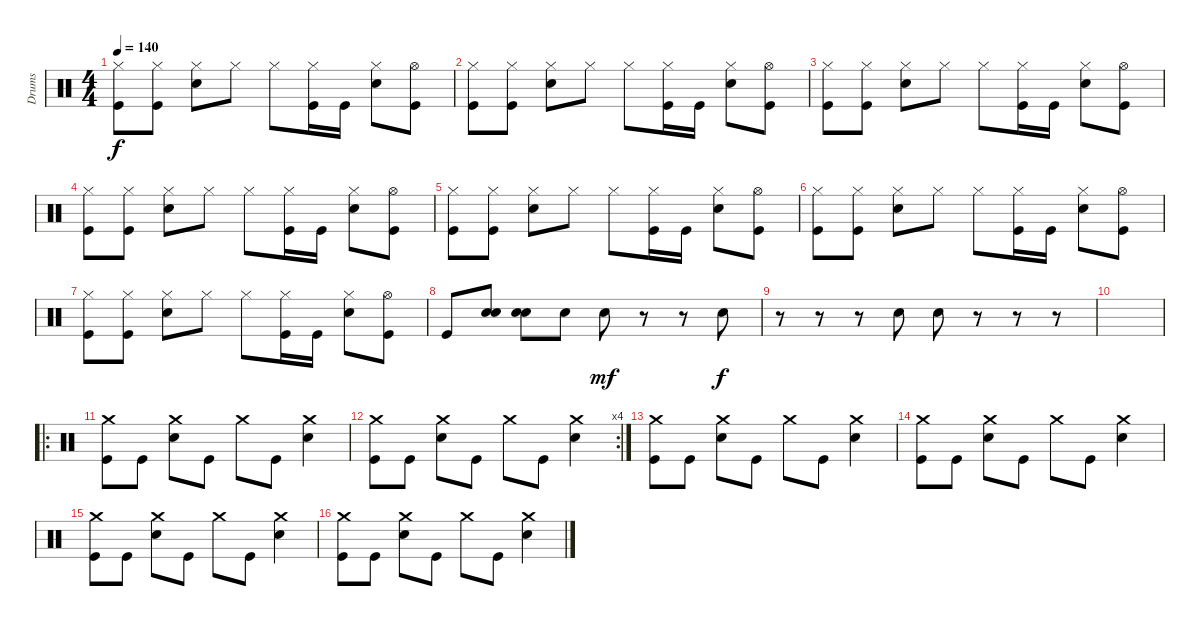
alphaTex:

\track ("Drums" "Drums") {instrument percussion}
\staff {score}
\articulation defaults
\ts (4 4)
\tempo 140
\clef neutral
\ks c
("Hi-Hat (closed)" "Kick (hit)").8{dy f} ("Hi-Hat (closed)" "Kick (hit)").8 ("Hi-Hat (closed)" "Snare (hit) 2").8 "Hi-Hat (closed)".8 "Hi-Hat (closed)".8 ("Hi-Hat (closed)" "Kick (hit)").16 "Kick (hit)".16 ("Hi-Hat (closed)" "Snare (hit) 2").8 ("Hi-Hat (open)" "Kick (hit)").8 |
("Hi-Hat (closed)" "Kick (hit)").8 ("Hi-Hat (closed)" "Kick (hit)").8 ("Hi-Hat (closed)" "Snare (hit) 2").8 "Hi-Hat (closed)".8 "Hi-Hat (closed)".8 ("Hi-Hat (closed)" "Kick (hit)").16 "Kick (hit)".16 ("Hi-Hat (closed)" "Snare (hit) 2").8 ("Hi-Hat (open)" "Kick (hit)").8 |
("Hi-Hat (closed)" "Kick (hit)").8 ("Hi-Hat (closed)" "Kick (hit)").8 ("Hi-Hat (closed)" "Snare (hit) 2").8 "Hi-Hat (closed)".8 "Hi-Hat (closed)".8 ("Hi-Hat (closed)" "Kick (hit)").16 "Kick (hit)".16 ("Hi-Hat (closed)" "Snare (hit) 2").8 ("Hi-Hat (open)" "Kick (hit)").8 |
("Hi-Hat (closed)" "Kick (hit)").8 ("Hi-Hat (closed)" "Kick (hit)").8 ("Hi-Hat (closed)" "Snare (hit) 2").8 "Hi-Hat (closed)".8 "Hi-Hat (closed)".8 ("Hi-Hat (closed)" "Kick (hit)").16 "Kick (hit)".16 ("Hi-Hat (closed)" "Snare (hit) 2").8 ("Hi-Hat (open)" "Kick (hit)").8 |
("Hi-Hat (closed)" "Kick (hit)").8 ("Hi-Hat (closed)" "Kick (hit)").8 ("Hi-Hat (closed)" "Snare (hit) 2").8 "Hi-Hat (closed)".8 "Hi-Hat (closed)".8 ("Hi-Hat (closed)" "Kick (hit)").16 "Kick (hit)".16 ("Hi-Hat (closed)" "Snare (hit) 2").8 ("Hi-Hat (open)" "Kick (hit)").8 |
("Hi-Hat (closed)" "Kick (hit)").8 ("Hi-Hat (closed)" "Kick (hit)").8 ("Hi-Hat (closed)" "Snare (hit) 2").8 "Hi-Hat (closed)".8 "Hi-Hat (closed)".8 ("Hi-Hat (closed)" "Kick (hit)").16 "Kick (hit)".16 ("Hi-Hat (closed)" "Snare (hit) 2").8 ("Hi-Hat (open)" "Kick (hit)").8 |
("Hi-Hat (closed)" "Kick (hit)").8 ("Hi-Hat (closed)" "Kick (hit)").8 ("Hi-Hat (closed)" "Snare (hit) 2").8 "Hi-Hat (closed)".8 "Hi-Hat (closed)".8 ("Hi-Hat (closed)" "Kick (hit)").16 "Kick (hit)".16 ("Hi-Hat (closed)" "Snare (hit) 2").8 ("Hi-Hat (open)" "Kick (hit)").8 |
"Kick (hit)".8 ("Electric Snare (hit)" "Snare (hit) 2").8 ("Electric Snare (hit)" "Snare (hit) 2").8 "Snare (hit) 2".8 "Snare (hit) 2".8{dy mf} r.8 r.8 "Snare (hit) 2".8{dy f} |
r.8 r.8 r.8 "Snare (hit) 2".8 "Snare (hit) 2".8 r.8 r.8 r.8 |
|
\ro
("Crash medium (hit)" "Kick (hit)").8 "Kick (hit)".8 ("Crash medium (hit)" "Snare (hit) 2").8 "Kick (hit)".8 "Crash medium (hit)".8 "Kick (hit)".8 ("Crash medium (hit)" "Snare (hit) 2").4 |
\rc 4
("Crash medium (hit)" "Kick (hit)").8 "Kick (hit)".8 ("Crash medium (hit)" "Snare (hit) 2").8 "Kick (hit)".8 "Crash medium (hit)".8 "Kick (hit)".8 ("Crash medium (hit)" "Snare (hit) 2").4 |
("Crash medium (hit)" "Kick (hit)").8 "Kick (hit)".8 ("Crash medium (hit)" "Snare (hit) 2").8 "Kick (hit)".8 "Crash medium (hit)".8 "Kick (hit)".8 ("Crash medium (hit)" "Snare (hit) 2").4 |
("Crash medium (hit)" "Kick (hit)").8 "Kick (hit)".8 ("Crash medium (hit)" "Snare (hit) 2").8 "Kick (hit)".8 "Crash medium (hit)".8 "Kick (hit)".8 ("Crash medium (hit)" "Snare (hit) 2").4 |
("Crash medium (hit)" "Kick (hit)").8 "Kick (hit)".8 ("Crash medium (hit)" "Snare (hit) 2").8 "Kick (hit)".8 "Crash medium (hit)".8 "Kick (hit)".8 ("Crash medium (hit)" "Snare (hit) 2").4 |
("Crash medium (hit)" "Kick (hit)").8 "Kick (hit)".8 ("Crash medium (hit)" "Snare (hit) 2").8 "Kick (hit)".8 "Crash medium (hit)".8 "Kick (hit)".8 ("Crash medium (hit)" "Snare (hit) 2").4
